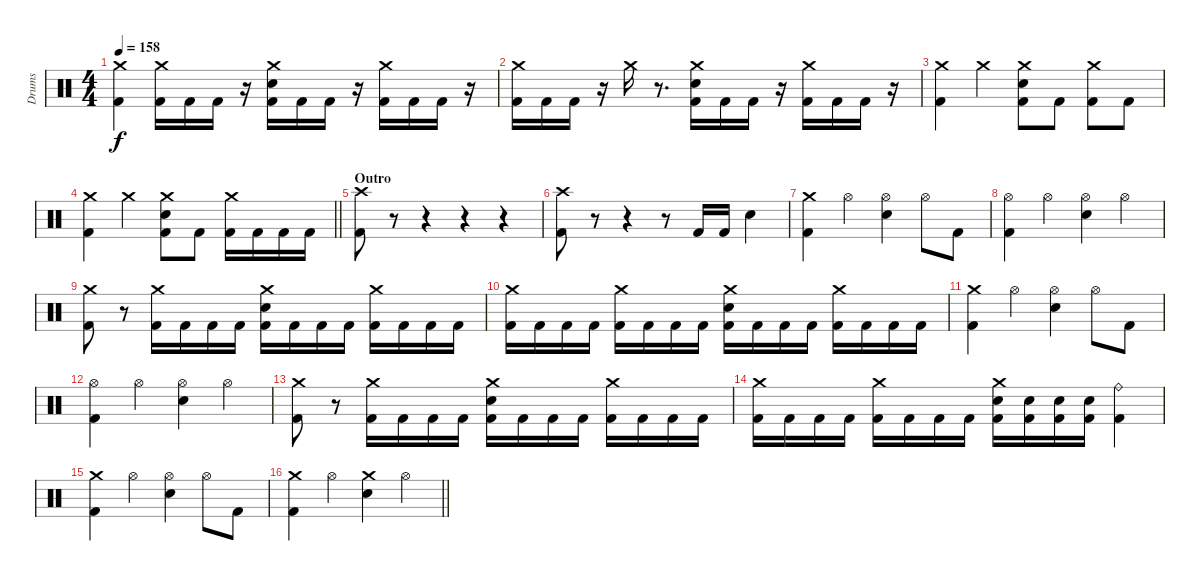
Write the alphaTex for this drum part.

\track ("Drums" "Drums") {instrument percussion}
\staff {score}
\articulation defaults
\ts (4 4)
\tempo 158
\clef neutral
\ks c
("Crash medium (hit)" "Kick (hit) 2").4{dy f} ("Crash medium (hit)" "Kick (hit) 2").16 "Kick (hit) 2".16 "Kick (hit) 2".16 r.16 ("Crash medium (hit)" "Electric Snare (hit)" "Kick (hit) 2").16 "Kick (hit) 2".16 "Kick (hit) 2".16 r.16 ("Crash medium (hit)" "Kick (hit) 2").16 "Kick (hit) 2".16 "Kick (hit) 2".16 r.16 |
("Crash medium (hit)" "Kick (hit) 2").16 "Kick (hit) 2".16 "Kick (hit) 2".16 r.16 "Crash medium (hit)".16 r.8{d} ("Crash medium (hit)" "Electric Snare (hit)" "Kick (hit) 2").16 "Kick (hit) 2".16 "Kick (hit) 2".16 r.16 ("Crash medium (hit)" "Kick (hit) 2").16 "Kick (hit) 2".16 "Kick (hit) 2".16 r.16 |
("Crash medium (hit)" "Kick (hit) 2").4 "Crash medium (hit)".4 ("Crash medium (hit)" "Electric Snare (hit)" "Kick (hit) 2").8 "Kick (hit) 2".8 ("Crash medium (hit)" "Kick (hit) 2").8 "Kick (hit) 2".8 |
\barLineRight lightlight
("Crash medium (hit)" "Kick (hit) 2").4 "Crash medium (hit)".4 ("Crash medium (hit)" "Electric Snare (hit)" "Kick (hit) 2").8 "Kick (hit) 2".8 ("Crash medium (hit)" "Kick (hit) 2").16 "Kick (hit) 2".16 "Kick (hit) 2".16 "Kick (hit) 2".16 |
\section ("" "Outro")
("Crash high (hit)" "Kick (hit) 2").8 r.8 r.4 r.4 r.4 |
("Crash high (hit)" "Kick (hit) 2").8 r.8 r.4 r.8 "Kick (hit) 2".16 "Kick (hit) 2".16 "Electric Snare (hit)".4 |
("Crash medium (hit)" "Kick (hit) 2").4 "Hi-Hat (open)".4 ("Hi-Hat (open)" "Electric Snare (hit)").4 "Hi-Hat (open)".8 "Kick (hit) 2".8 |
("Hi-Hat (open)" "Kick (hit) 2").4 "Hi-Hat (open)".4 ("Hi-Hat (open)" "Electric Snare (hit)").4 "Hi-Hat (open)".4 |
("Crash medium (hit)" "Kick (hit) 2").8 r.8 ("Crash medium (hit)" "Kick (hit) 2").16 "Kick (hit) 2".16 "Kick (hit) 2".16 "Kick (hit) 2".16 ("Crash medium (hit)" "Electric Snare (hit)" "Kick (hit) 2").16 "Kick (hit) 2".16 "Kick (hit) 2".16 "Kick (hit) 2".16 ("Crash medium (hit)" "Kick (hit) 2").16 "Kick (hit) 2".16 "Kick (hit) 2".16 "Kick (hit) 2".16 |
("Crash medium (hit)" "Kick (hit) 2").16 "Kick (hit) 2".16 "Kick (hit) 2".16 "Kick (hit) 2".16 ("Crash medium (hit)" "Kick (hit) 2").16 "Kick (hit) 2".16 "Kick (hit) 2".16 "Kick (hit) 2".16 ("Crash medium (hit)" "Electric Snare (hit)" "Kick (hit) 2").16 "Kick (hit) 2".16 "Kick (hit) 2".16 "Kick (hit) 2".16 ("Crash medium (hit)" "Kick (hit) 2").16 "Kick (hit) 2".16 "Kick (hit) 2".16 "Kick (hit) 2".16 |
("Crash medium (hit)" "Kick (hit) 2").4 "Hi-Hat (open)".4 ("Hi-Hat (open)" "Electric Snare (hit)").4 "Hi-Hat (open)".8 "Kick (hit) 2".8 |
("Hi-Hat (open)" "Kick (hit) 2").4 "Hi-Hat (open)".4 ("Hi-Hat (open)" "Electric Snare (hit)").4 "Hi-Hat (open)".4 |
("Crash medium (hit)" "Kick (hit) 2").8 r.8 ("Crash medium (hit)" "Kick (hit) 2").16 "Kick (hit) 2".16 "Kick (hit) 2".16 "Kick (hit) 2".16 ("Crash medium (hit)" "Electric Snare (hit)" "Kick (hit) 2").16 "Kick (hit) 2".16 "Kick (hit) 2".16 "Kick (hit) 2".16 ("Crash medium (hit)" "Kick (hit) 2").16 "Kick (hit) 2".16 "Kick (hit) 2".16 "Kick (hit) 2".16 |
("Crash medium (hit)" "Kick (hit) 2").16 "Kick (hit) 2".16 "Kick (hit) 2".16 "Kick (hit) 2".16 ("Crash medium (hit)" "Kick (hit) 2").16 "Kick (hit) 2".16 "Kick (hit) 2".16 "Kick (hit) 2".16 ("Crash medium (hit)" "Electric Snare (hit)" "Kick (hit) 2").16 ("Electric Snare (hit)" "Kick (hit) 2").16 ("Electric Snare (hit)" "Kick (hit) 2").16 ("Electric Snare (hit)" "Kick (hit) 2").16 ("Ride (bell)" "Kick (hit) 2").4 |
("Crash medium (hit)" "Kick (hit) 2").4 "Hi-Hat (open)".4 ("Hi-Hat (open)" "Electric Snare (hit)").4 "Hi-Hat (open)".8 "Kick (hit) 2".8 |
\barLineRight lightlight
("Crash medium (hit)" "Kick (hit) 2").4 "Hi-Hat (open)".4 ("Crash medium (hit)" "Electric Snare (hit)").4 "Hi-Hat (open)".4
